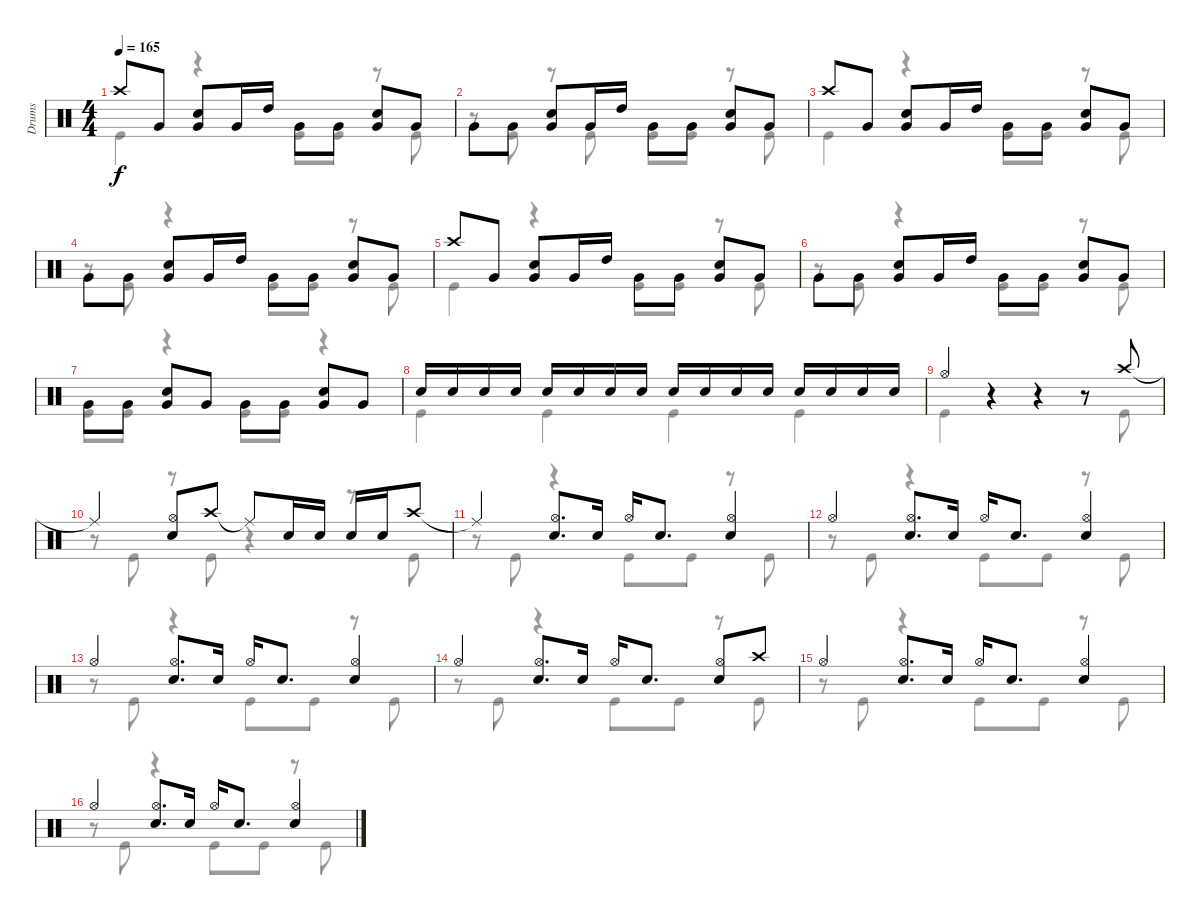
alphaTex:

\track ("Drums" "Drums") {instrument percussion}
\staff {score}
\articulation defaults
\voice
\ts (4 4)
\tempo 165
\clef neutral
\ks c "Crash high (hit)".8{dy f beam Up} "Very Low Tom (hit)".8{beam Up}
("Snare (hit) 2" "Very Low Tom (hit)").8{beam Up} "Very Low Tom (hit)".16{beam Up} "High Tom (hit)".16{beam Up} "Very Low Tom (hit)".8{beam Down} "Very Low Tom (hit)".8{beam Down} ("Snare (hit) 2" "Very Low Tom (hit)").8{beam Up} "Very Low Tom (hit)".8{beam Up} |
"Very Low Tom (hit)".8{beam Down} "Very Low Tom (hit)".8{beam Down} ("Snare (hit) 2" "Very Low Tom (hit)").8{beam Up} "Very Low Tom (hit)".16{beam Up} "High Tom (hit)".16{beam Up} "Very Low Tom (hit)".8{beam Down} "Very Low Tom (hit)".8{beam Down} ("Snare (hit) 2" "Very Low Tom (hit)").8{beam Up} "Very Low Tom (hit)".8{beam Up} |
"Crash high (hit)".8{beam Up} "Very Low Tom (hit)".8{beam Up} ("Snare (hit) 2" "Very Low Tom (hit)").8{beam Up} "Very Low Tom (hit)".16{beam Up} "High Tom (hit)".16{beam Up} "Very Low Tom (hit)".8{beam Down} "Very Low Tom (hit)".8{beam Down} ("Snare (hit) 2" "Very Low Tom (hit)").8{beam Up} "Very Low Tom (hit)".8{beam Up} |
"Very Low Tom (hit)".8{beam Down} "Very Low Tom (hit)".8{beam Down} ("Snare (hit) 2" "Very Low Tom (hit)").8{beam Up} "Very Low Tom (hit)".16{beam Up} "High Tom (hit)".16{beam Up} "Very Low Tom (hit)".8{beam Down} "Very Low Tom (hit)".8{beam Down} ("Snare (hit) 2" "Very Low Tom (hit)").8{beam Up} "Very Low Tom (hit)".8{beam Up} |
"Crash high (hit)".8{beam Up} "Very Low Tom (hit)".8{beam Up} ("Snare (hit) 2" "Very Low Tom (hit)").8{beam Up} "Very Low Tom (hit)".16{beam Up} "High Tom (hit)".16{beam Up} "Very Low Tom (hit)".8{beam Down} "Very Low Tom (hit)".8{beam Down} ("Snare (hit) 2" "Very Low Tom (hit)").8{beam Up} "Very Low Tom (hit)".8{beam Up} |
"Very Low Tom (hit)".8{beam Down} "Very Low Tom (hit)".8{beam Down} ("Snare (hit) 2" "Very Low Tom (hit)").8{beam Up} "Very Low Tom (hit)".16{beam Up} "High Tom (hit)".16{beam Up} "Very Low Tom (hit)".8{beam Down} "Very Low Tom (hit)".8{beam Down} ("Snare (hit) 2" "Very Low Tom (hit)").8{beam Up} "Very Low Tom (hit)".8{beam Up} |
"Very Low Tom (hit)".8{beam Down} "Very Low Tom (hit)".8{beam Down} ("Snare (hit) 2" "Very Low Tom (hit)").8{beam Up} "Very Low Tom (hit)".8{beam Up} "Very Low Tom (hit)".8{beam Down} "Very Low Tom (hit)".8{beam Down} ("Snare (hit) 2" "Very Low Tom (hit)").8{beam Up} "Very Low Tom (hit)".8{beam Up} |
"Snare (hit) 2".16{beam Up} "Snare (hit) 2".16{beam Up} "Snare (hit) 2".16{beam Up} "Snare (hit) 2".16{beam Up} "Snare (hit) 2".16{beam Up} "Snare (hit) 2".16{beam Up} "Snare (hit) 2".16{beam Up} "Snare (hit) 2".16{beam Up} "Snare (hit) 2".16{beam Up} "Snare (hit) 2".16{beam Up} "Snare (hit) 2".16{beam Up} "Snare (hit) 2".16{beam Up} "Snare (hit) 2".16{beam Up} "Snare (hit) 2".16{beam Up} "Snare (hit) 2".16{beam Up} "Snare (hit) 2".16{beam Up} |
"Hi-Hat (open)".4{beam Up} r.4 r.4 r.8 "Crash high (hit)".8{beam Up} |
"Ride (middle)"{t}.4{beam Up} ("Hi-Hat (open)" "Snare (hit) 2").8{beam Up} "Crash high (hit)".8{beam Up} "Ride (middle)"{t}.8{beam Up} "Snare (hit) 2".16{beam Up} "Snare (hit) 2".16{beam Up} "Snare (hit) 2".16{beam Up} "Snare (hit) 2".16{beam Up} "Crash high (hit)".8{beam Up} |
"Ride (middle)"{t}.4{beam Up} ("Hi-Hat (open)" "Snare (hit) 2").8{d beam Up} "Snare (hit) 2".16{beam Up} "Hi-Hat (open)".16{beam Up} "Snare (hit) 2".8{d beam Up} ("Hi-Hat (open)" "Snare (hit) 2").4{beam Up} |
"Hi-Hat (open)".4{beam Up} ("Hi-Hat (open)" "Snare (hit) 2").8{d beam Up} "Snare (hit) 2".16{beam Up} "Hi-Hat (open)".16{beam Up} "Snare (hit) 2".8{d beam Up} ("Hi-Hat (open)" "Snare (hit) 2").4{beam Up} |
"Hi-Hat (open)".4{beam Up} ("Hi-Hat (open)" "Snare (hit) 2").8{d beam Up} "Snare (hit) 2".16{beam Up} "Hi-Hat (open)".16{beam Up} "Snare (hit) 2".8{d beam Up} ("Hi-Hat (open)" "Snare (hit) 2").4{beam Up} |
"Hi-Hat (open)".4{beam Up} ("Hi-Hat (open)" "Snare (hit) 2").8{d beam Up} "Snare (hit) 2".16{beam Up} "Hi-Hat (open)".16{beam Up} "Snare (hit) 2".8{d beam Up} ("Hi-Hat (open)" "Snare (hit) 2").8{beam Up} "Crash high (hit)".8{beam Up} |
"Hi-Hat (open)".4{beam Up} ("Hi-Hat (open)" "Snare (hit) 2").8{d beam Up} "Snare (hit) 2".16{beam Up} "Hi-Hat (open)".16{beam Up} "Snare (hit) 2".8{d beam Up} ("Hi-Hat (open)" "Snare (hit) 2").4{beam Up} |
"Hi-Hat (open)".4{beam Up} ("Hi-Hat (open)" "Snare (hit) 2").8{d beam Up} "Snare (hit) 2".16{beam Up} "Hi-Hat (open)".16{beam Up} "Snare (hit) 2".8{d beam Up} ("Hi-Hat (open)" "Snare (hit) 2").4{beam Up}
\voice
\clef neutral
\ottava regular
\simile none
\ks c "Kick (hit)".4{dy f}
r.4 "Kick (hit)".8 "Kick (hit)".8 r.8 "Kick (hit)".8 |
r.8 "Kick (hit)".8 r.8 "Kick (hit)".8 "Kick (hit)".8 "Kick (hit)".8 r.8 "Kick (hit)".8 |
"Kick (hit)".4 r.4 "Kick (hit)".8 "Kick (hit)".8 r.8 "Kick (hit)".8 |
r.8 "Kick (hit)".8 r.4 "Kick (hit)".8 "Kick (hit)".8 r.8 "Kick (hit)".8 |
"Kick (hit)".4 r.4 "Kick (hit)".8 "Kick (hit)".8 r.8 "Kick (hit)".8 |
r.8 "Kick (hit)".8 r.4 "Kick (hit)".8 "Kick (hit)".8 r.8 "Kick (hit)".8 |
"Kick (hit)".8 "Kick (hit)".8 r.4 "Kick (hit)".8 "Kick (hit)".8 r.4 |
"Kick (hit)".4 "Kick (hit)".4 "Kick (hit)".4 "Kick (hit)".4 |
"Kick (hit)".4 r.4 r.4 r.8 "Kick (hit)".8 |
r.8 "Kick (hit)".8 r.8 "Kick (hit)".8 r.4 r.8 "Kick (hit)".8 |
r.8 "Kick (hit)".8 r.4 "Kick (hit)".8 "Kick (hit)".8 r.8 "Kick (hit)".8 |
r.8 "Kick (hit)".8 r.4 "Kick (hit)".8 "Kick (hit)".8 r.8 "Kick (hit)".8 |
r.8 "Kick (hit)".8 r.4 "Kick (hit)".8 "Kick (hit)".8 r.8 "Kick (hit)".8 |
r.8 "Kick (hit)".8 r.4 "Kick (hit)".8 "Kick (hit)".8 r.8 "Kick (hit)".8 |
r.8 "Kick (hit)".8 r.4 "Kick (hit)".8 "Kick (hit)".8 r.8 "Kick (hit)".8 |
r.8 "Kick (hit)".8 r.4 "Kick (hit)".8 "Kick (hit)".8 r.8 "Kick (hit)".8
